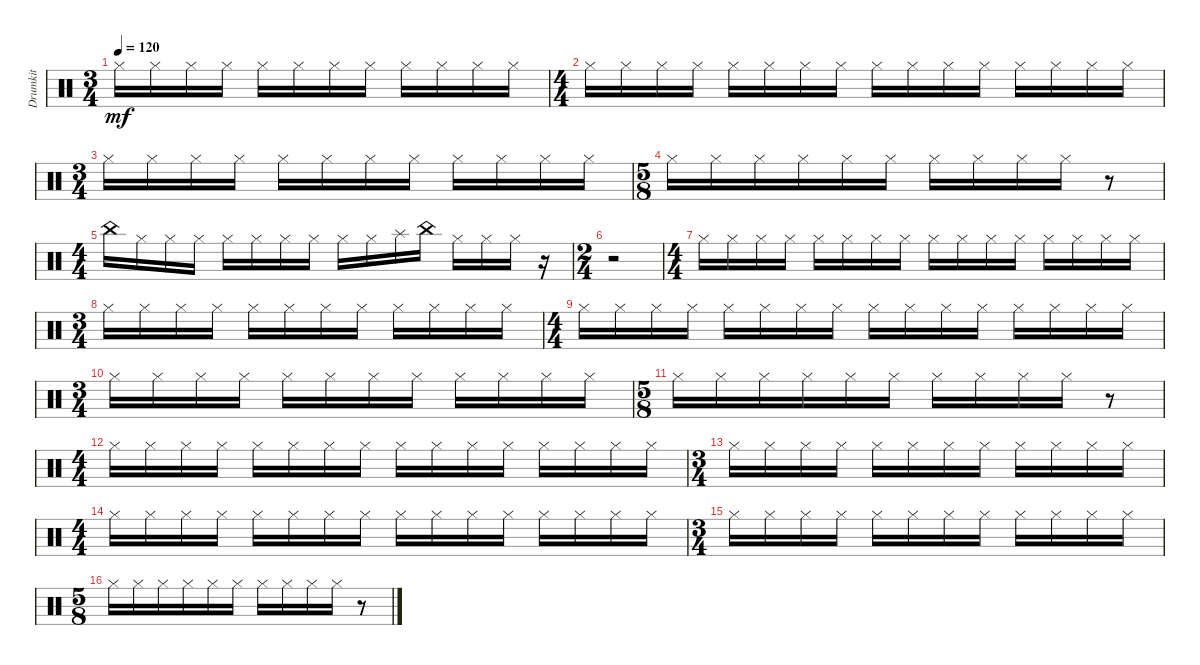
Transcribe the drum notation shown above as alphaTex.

\track ("Drumkit" "Drumkit") {instrument percussion}
\staff {score}
\articulation defaults
\ts (3 4)
\tempo 120
\clef neutral
\ks c "Hi-Hat (closed)".16{dy mf} "Hi-Hat (closed)".16 "Hi-Hat (closed)".16 "Hi-Hat (closed)".16 "Hi-Hat (closed)".16 "Hi-Hat (closed)".16 "Hi-Hat (closed)".16 "Hi-Hat (closed)".16 "Hi-Hat (closed)".16 "Hi-Hat (closed)".16 "Hi-Hat (closed)".16 "Hi-Hat (closed)".16
|
\ts (4 4)
"Hi-Hat (closed)".16 "Hi-Hat (closed)".16 "Hi-Hat (closed)".16 "Hi-Hat (closed)".16 "Hi-Hat (closed)".16 "Hi-Hat (closed)".16 "Hi-Hat (closed)".16 "Hi-Hat (closed)".16 "Hi-Hat (closed)".16 "Hi-Hat (closed)".16 "Hi-Hat (closed)".16 "Hi-Hat (closed)".16 "Hi-Hat (closed)".16 "Hi-Hat (closed)".16 "Hi-Hat (closed)".16 "Hi-Hat (closed)".16 |
\ts (3 4)
"Hi-Hat (closed)".16 "Hi-Hat (closed)".16 "Hi-Hat (closed)".16 "Hi-Hat (closed)".16 "Hi-Hat (closed)".16 "Hi-Hat (closed)".16 "Hi-Hat (closed)".16 "Hi-Hat (closed)".16 "Hi-Hat (closed)".16 "Hi-Hat (closed)".16 "Hi-Hat (closed)".16 "Hi-Hat (closed)".16 |
\ts (5 8)
"Hi-Hat (closed)".16 "Hi-Hat (closed)".16 "Hi-Hat (closed)".16 "Hi-Hat (closed)".16 "Hi-Hat (closed)".16 "Hi-Hat (closed)".16 "Hi-Hat (closed)".16 "Hi-Hat (closed)".16 "Hi-Hat (closed)".16 "Hi-Hat (closed)".16 r.8 |
\ts (4 4)
"China (hit)".16 "Hi-Hat (closed)".16 "Hi-Hat (closed)".16 "Hi-Hat (closed)".16 "Hi-Hat (closed)".16 "Hi-Hat (closed)".16 "Hi-Hat (closed)".16 "Hi-Hat (closed)".16 "Hi-Hat (closed)".16 "Hi-Hat (closed)".16 "Splash (hit)".16 "China (hit)".16 "Hi-Hat (closed)".16 "Hi-Hat (closed)".16 "Hi-Hat (closed)".16 r.16 |
\ts (2 4)
r.2 |
\ts (4 4)
"Hi-Hat (closed)".16 "Hi-Hat (closed)".16 "Hi-Hat (closed)".16 "Hi-Hat (closed)".16 "Hi-Hat (closed)".16 "Hi-Hat (closed)".16 "Hi-Hat (closed)".16 "Hi-Hat (closed)".16 "Hi-Hat (closed)".16 "Hi-Hat (closed)".16 "Hi-Hat (closed)".16 "Hi-Hat (closed)".16 "Hi-Hat (closed)".16 "Hi-Hat (closed)".16 "Hi-Hat (closed)".16 "Hi-Hat (closed)".16 |
\ts (3 4)
"Hi-Hat (closed)".16 "Hi-Hat (closed)".16 "Hi-Hat (closed)".16 "Hi-Hat (closed)".16 "Hi-Hat (closed)".16 "Hi-Hat (closed)".16 "Hi-Hat (closed)".16 "Hi-Hat (closed)".16 "Hi-Hat (closed)".16 "Hi-Hat (closed)".16 "Hi-Hat (closed)".16 "Hi-Hat (closed)".16 |
\ts (4 4)
"Hi-Hat (closed)".16 "Hi-Hat (closed)".16 "Hi-Hat (closed)".16 "Hi-Hat (closed)".16 "Hi-Hat (closed)".16 "Hi-Hat (closed)".16 "Hi-Hat (closed)".16 "Hi-Hat (closed)".16 "Hi-Hat (closed)".16 "Hi-Hat (closed)".16 "Hi-Hat (closed)".16 "Hi-Hat (closed)".16 "Hi-Hat (closed)".16 "Hi-Hat (closed)".16 "Hi-Hat (closed)".16 "Hi-Hat (closed)".16 |
\ts (3 4)
"Hi-Hat (closed)".16 "Hi-Hat (closed)".16 "Hi-Hat (closed)".16 "Hi-Hat (closed)".16 "Hi-Hat (closed)".16 "Hi-Hat (closed)".16 "Hi-Hat (closed)".16 "Hi-Hat (closed)".16 "Hi-Hat (closed)".16 "Hi-Hat (closed)".16 "Hi-Hat (closed)".16 "Hi-Hat (closed)".16 |
\ts (5 8)
"Hi-Hat (closed)".16 "Hi-Hat (closed)".16 "Hi-Hat (closed)".16 "Hi-Hat (closed)".16 "Hi-Hat (closed)".16 "Hi-Hat (closed)".16 "Hi-Hat (closed)".16 "Hi-Hat (closed)".16 "Hi-Hat (closed)".16 "Hi-Hat (closed)".16 r.8 |
\ts (4 4)
"Hi-Hat (closed)".16 "Hi-Hat (closed)".16 "Hi-Hat (closed)".16 "Hi-Hat (closed)".16 "Hi-Hat (closed)".16 "Hi-Hat (closed)".16 "Hi-Hat (closed)".16 "Hi-Hat (closed)".16 "Hi-Hat (closed)".16 "Hi-Hat (closed)".16 "Hi-Hat (closed)".16 "Hi-Hat (closed)".16 "Hi-Hat (closed)".16 "Hi-Hat (closed)".16 "Hi-Hat (closed)".16 "Hi-Hat (closed)".16 |
\ts (3 4)
"Hi-Hat (closed)".16 "Hi-Hat (closed)".16 "Hi-Hat (closed)".16 "Hi-Hat (closed)".16 "Hi-Hat (closed)".16 "Hi-Hat (closed)".16 "Hi-Hat (closed)".16 "Hi-Hat (closed)".16 "Hi-Hat (closed)".16 "Hi-Hat (closed)".16 "Hi-Hat (closed)".16 "Hi-Hat (closed)".16 |
\ts (4 4)
"Hi-Hat (closed)".16 "Hi-Hat (closed)".16 "Hi-Hat (closed)".16 "Hi-Hat (closed)".16 "Hi-Hat (closed)".16 "Hi-Hat (closed)".16 "Hi-Hat (closed)".16 "Hi-Hat (closed)".16 "Hi-Hat (closed)".16 "Hi-Hat (closed)".16 "Hi-Hat (closed)".16 "Hi-Hat (closed)".16 "Hi-Hat (closed)".16 "Hi-Hat (closed)".16 "Hi-Hat (closed)".16 "Hi-Hat (closed)".16 |
\ts (3 4)
"Hi-Hat (closed)".16 "Hi-Hat (closed)".16 "Hi-Hat (closed)".16 "Hi-Hat (closed)".16 "Hi-Hat (closed)".16 "Hi-Hat (closed)".16 "Hi-Hat (closed)".16 "Hi-Hat (closed)".16 "Hi-Hat (closed)".16 "Hi-Hat (closed)".16 "Hi-Hat (closed)".16 "Hi-Hat (closed)".16 |
\ts (5 8)
"Hi-Hat (closed)".16 "Hi-Hat (closed)".16 "Hi-Hat (closed)".16 "Hi-Hat (closed)".16 "Hi-Hat (closed)".16 "Hi-Hat (closed)".16 "Hi-Hat (closed)".16 "Hi-Hat (closed)".16 "Hi-Hat (closed)".16 "Hi-Hat (closed)".16 r.8
